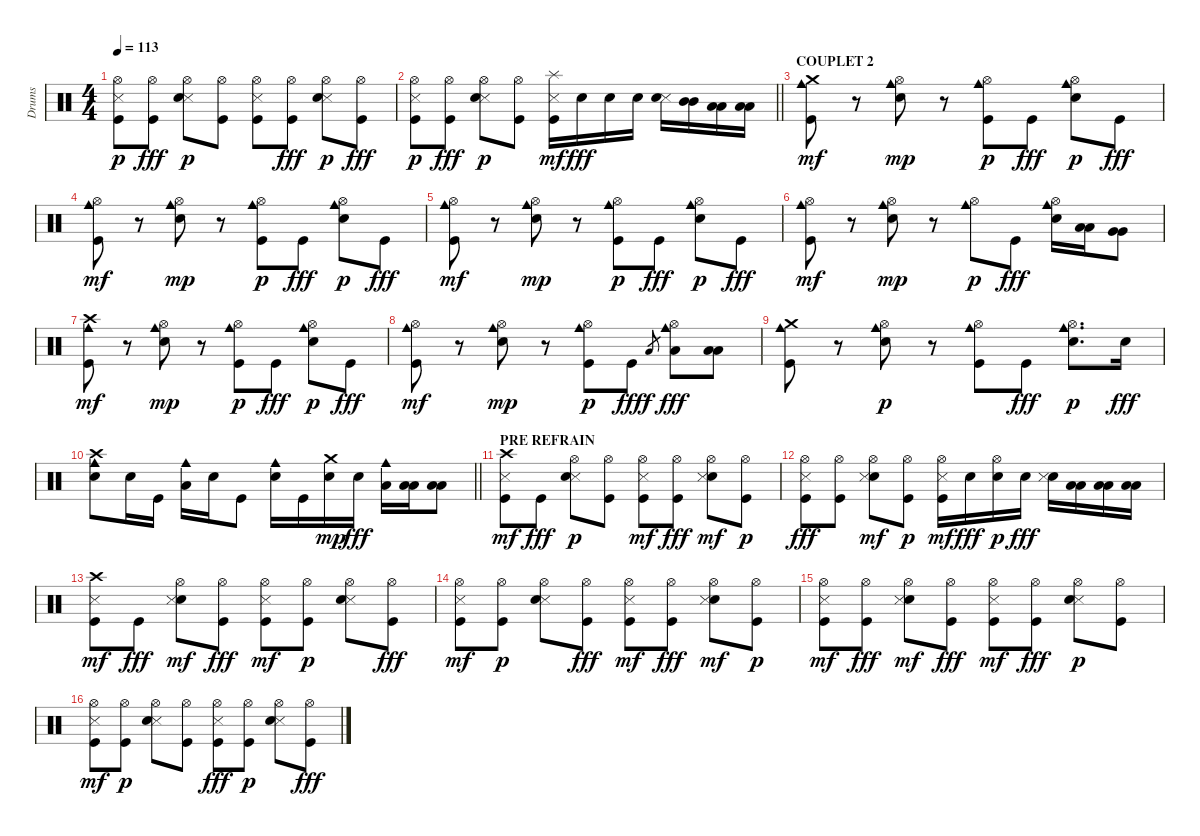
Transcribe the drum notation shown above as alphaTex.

\track ("Drums" "Drums") {instrument percussion}
\staff {score}
\articulation defaults
\ts (4 4)
\tempo 113
\clef neutral
\ks c
("Snare (side stick) 3" "Kick (hit)" "Hi-Hat (open)").8{dy p} ("Hi-Hat (open)" "Kick (hit)").8{dy fff} ("Snare (side stick) 3" "Electric Snare (hit)" "Hi-Hat (open)").8{dy p} ("Kick (hit)" "Hi-Hat (open)").8 ("Snare (side stick) 3" "Kick (hit)" "Hi-Hat (open)").8 ("Hi-Hat (open)" "Kick (hit)").8{dy fff} ("Snare (side stick) 3" "Electric Snare (hit)" "Hi-Hat (open)").8{dy p} ("Hi-Hat (open)" "Kick (hit)").8{dy fff} |
\barLineRight lightlight
("Snare (side stick) 3" "Kick (hit)" "Hi-Hat (open)").8{dy p} ("Hi-Hat (open)" "Kick (hit)").8{dy fff} ("Snare (side stick) 3" "Electric Snare (hit)" "Hi-Hat (open)").8{dy p} ("Kick (hit)" "Hi-Hat (open)").8 ("Splash (hit)" "Kick (hit)" "Snare (side stick) 3").16{dy mf} "Electric Snare (hit)".16{dy fff} "Electric Snare (hit)".16 "Electric Snare (hit)".16 ("Snare (side stick) 3" "Electric Snare (hit)").16 ("Mid Tom (hit)" "Mid Tom (hit)").16 ("Low Tom (hit)" "Low Tom (hit)").16 ("Low Tom (hit)" "Low Tom (hit)").16 |
\section ("" "COUPLET 2")
("Crash medium (hit)" "Kick (hit)" "Cowbell medium (hit)").8{dy mf} r.8 ("Electric Snare (hit)" "Hi-Hat (open)" "Cowbell medium (hit)").8{dy mp} r.8 ("Cowbell medium (hit)" "Kick (hit)" "Hi-Hat (open)").8{dy p} "Kick (hit)".8{dy fff} ("Electric Snare (hit)" "Cowbell medium (hit)" "Hi-Hat (open)").8{dy p} "Kick (hit)".8{dy fff} |
("Hi-Hat (open)" "Kick (hit)" "Cowbell medium (hit)").8{dy mf} r.8 ("Electric Snare (hit)" "Hi-Hat (open)" "Cowbell medium (hit)").8{dy mp} r.8 ("Cowbell medium (hit)" "Kick (hit)" "Hi-Hat (open)").8{dy p} "Kick (hit)".8{dy fff} ("Electric Snare (hit)" "Cowbell medium (hit)" "Hi-Hat (open)").8{dy p} "Kick (hit)".8{dy fff} |
("Hi-Hat (open)" "Kick (hit)" "Cowbell medium (hit)").8{dy mf} r.8 ("Electric Snare (hit)" "Hi-Hat (open)" "Cowbell medium (hit)").8{dy mp} r.8 ("Cowbell medium (hit)" "Kick (hit)" "Hi-Hat (open)").8{dy p} "Kick (hit)".8{dy fff} ("Electric Snare (hit)" "Cowbell medium (hit)" "Hi-Hat (open)").8{dy p} "Kick (hit)".8{dy fff} |
("Hi-Hat (open)" "Kick (hit)" "Cowbell medium (hit)").8{dy mf} r.8 ("Electric Snare (hit)" "Hi-Hat (open)" "Cowbell medium (hit)").8{dy mp} r.8 ("Cowbell medium (hit)" "Hi-Hat (open)").8{dy p} "Kick (hit)".8{dy fff} ("Cowbell medium (hit)" "Hi-Hat (open)" "Electric Snare (hit)").16 ("Low Tom (hit)" "Low Tom (hit)").16 ("Very Low Tom (hit)" "Very Low Tom (hit)").8 |
("Crash high (hit)" "Kick (hit)" "Cowbell medium (hit)").8{dy mf} r.8 ("Electric Snare (hit)" "Hi-Hat (open)" "Cowbell medium (hit)").8{dy mp} r.8 ("Cowbell medium (hit)" "Kick (hit)" "Hi-Hat (open)").8{dy p} "Kick (hit)".8{dy fff} ("Electric Snare (hit)" "Cowbell medium (hit)" "Hi-Hat (open)").8{dy p} "Kick (hit)".8{dy fff} |
("Hi-Hat (open)" "Kick (hit)" "Cowbell medium (hit)").8{dy mf} r.8 ("Electric Snare (hit)" "Hi-Hat (open)" "Cowbell medium (hit)").8{dy mp} r.8 ("Cowbell medium (hit)" "Kick (hit)" "Hi-Hat (open)").8{dy p} "Kick (hit)".8{dy fff} "Low Tom (hit)".8{gr dy f} ("Cowbell medium (hit)" "Hi-Hat (open)" "Low Tom (hit)").8{dy fff} ("Low Floor Tom (hit)" "Low Floor Tom (hit)").8 |
("Cowbell medium (hit)" "Crash medium (hit)" "Kick (hit)").8 r.8 ("Cowbell medium (hit)" "Electric Snare (hit)" "Hi-Hat (open)").8{dy p} r.8 ("Cowbell medium (hit)" "Kick (hit)" "Hi-Hat (open)").8 "Kick (hit)".8{dy fff} ("Cowbell medium (hit)" "Electric Snare (hit)" "Hi-Hat (open)").8{d dy p} "Electric Snare (hit)".16{dy fff} |
\barLineRight lightlight
("Cowbell medium (hit)" "Crash high (hit)" "Electric Snare (hit)").8 "Electric Snare (hit)".16 "Kick (hit)".16 ("Cowbell medium (hit)" "Low Tom (hit)").16 "Electric Snare (hit)".16 "Kick (hit)".8 ("Cowbell medium (hit)" "Electric Snare (hit)").16 "Kick (hit)".16 ("Electric Snare (hit)" "Crash medium (hit)").16{dy mp} "Electric Snare (hit)".16{dy fff} ("Cowbell medium (hit)" "Low Tom (hit)").16 ("Low Tom (hit)" "Low Tom (hit)").16 ("Low Tom (hit)" "Low Tom (hit)").8 |
\section ("" "PRE REFRAIN")
("Kick (hit)" "Crash high (hit)" "Snare (side stick) 3").8{dy mf} "Kick (hit)".8{dy fff} ("Snare (side stick) 3" "Electric Snare (hit)" "Hi-Hat (open)").8{dy p} ("Kick (hit)" "Hi-Hat (open)").8 ("Hi-Hat (open)" "Kick (hit)" "Snare (side stick) 3").8{dy mf} ("Hi-Hat (open)" "Kick (hit)").8{dy fff} ("Electric Snare (hit)" "Hi-Hat (open)" "Snare (side stick) 3").8{dy mf} ("Kick (hit)" "Hi-Hat (open)").8{dy p} |
("Snare (side stick) 3" "Hi-Hat (open)" "Kick (hit)").8{dy fff} ("Hi-Hat (open)" "Kick (hit)").8 ("Hi-Hat (open)" "Electric Snare (hit)" "Snare (side stick) 3").8{dy mf} ("Kick (hit)" "Hi-Hat (open)").8{dy p} ("Hi-Hat (open)" "Kick (hit)" "Snare (side stick) 3").16{dy mf} "Electric Snare (hit)".16{dy fff} ("Electric Snare (hit)" "Hi-Hat (open)").16{dy p} "Electric Snare (hit)".16{dy fff} ("Electric Snare (hit)" "Snare (side stick) 3").16 ("Low Tom (hit)" "Low Tom (hit)").16 ("Low Tom (hit)" "Low Tom (hit)").16 ("Low Tom (hit)" "Low Tom (hit)").16 |
("Snare (side stick) 3" "Kick (hit)" "Crash high (hit)").8{dy mf} "Kick (hit)".8{dy fff} ("Hi-Hat (open)" "Electric Snare (hit)" "Snare (side stick) 3").8{dy mf} ("Hi-Hat (open)" "Kick (hit)").8{dy fff} ("Hi-Hat (open)" "Kick (hit)" "Snare (side stick) 3").8{dy mf} ("Kick (hit)" "Hi-Hat (open)").8{dy p} ("Snare (side stick) 3" "Electric Snare (hit)" "Hi-Hat (open)").8 ("Hi-Hat (open)" "Kick (hit)").8{dy fff} |
("Hi-Hat (open)" "Kick (hit)" "Snare (side stick) 3").8{dy mf} ("Kick (hit)" "Hi-Hat (open)").8{dy p} ("Snare (side stick) 3" "Electric Snare (hit)" "Hi-Hat (open)").8 ("Hi-Hat (open)" "Kick (hit)").8{dy fff} ("Kick (hit)" "Hi-Hat (open)" "Snare (side stick) 3").8{dy mf} ("Hi-Hat (open)" "Kick (hit)").8{dy fff} ("Electric Snare (hit)" "Hi-Hat (open)" "Snare (side stick) 3").8{dy mf} ("Kick (hit)" "Hi-Hat (open)").8{dy p} |
("Kick (hit)" "Hi-Hat (open)" "Snare (side stick) 3").8{dy mf} ("Hi-Hat (open)" "Kick (hit)").8{dy fff} ("Electric Snare (hit)" "Hi-Hat (open)" "Snare (side stick) 3").8{dy mf} ("Hi-Hat (open)" "Kick (hit)").8{dy fff} ("Hi-Hat (open)" "Kick (hit)" "Snare (side stick) 3").8{dy mf} ("Hi-Hat (open)" "Kick (hit)").8{dy fff} ("Snare (side stick) 3" "Electric Snare (hit)" "Hi-Hat (open)").8{dy p} ("Kick (hit)" "Hi-Hat (open)").8 |
("Kick (hit)" "Hi-Hat (open)" "Snare (side stick) 3").8{dy mf} ("Kick (hit)" "Hi-Hat (open)").8{dy p} ("Snare (side stick) 3" "Electric Snare (hit)" "Hi-Hat (open)").8 ("Kick (hit)" "Hi-Hat (open)").8 ("Hi-Hat (open)" "Snare (side stick) 3" "Kick (hit)").8{dy fff} ("Kick (hit)" "Hi-Hat (open)").8{dy p} ("Snare (side stick) 3" "Electric Snare (hit)" "Hi-Hat (open)").8 ("Hi-Hat (open)" "Kick (hit)").8{dy fff}
